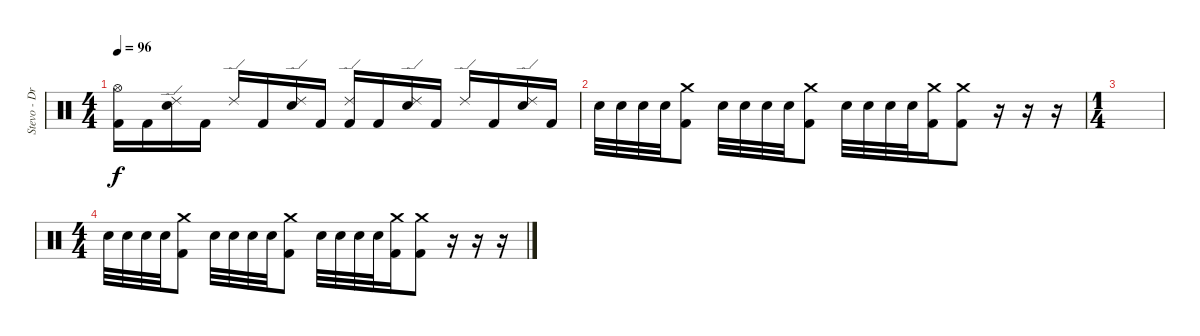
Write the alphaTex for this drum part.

\track ("Stevo - Drums" "Stevo - Dr") {instrument percussion}
\staff {score}
\articulation defaults
\ts (4 4)
\tempo 96
\clef neutral
\ks c
("Hi-Hat (open)" "Kick (hit) 2").16{dy f} "Kick (hit) 2".16 ("Ride (edge) 2" "Electric Snare (hit)").16 "Kick (hit) 2".16 "Ride (edge) 2".16 "Kick (hit) 2".16 ("Ride (edge) 2" "Electric Snare (hit)").16 "Kick (hit) 2".16 ("Ride (edge) 2" "Kick (hit) 2").16 "Kick (hit) 2".16 ("Ride (edge) 2" "Electric Snare (hit)").16 "Kick (hit) 2".16 "Ride (edge) 2".16 "Kick (hit) 2".16 ("Ride (edge) 2" "Electric Snare (hit)").16 "Kick (hit) 2".16 |
"Electric Snare (hit)".32 "Electric Snare (hit)".32 "Electric Snare (hit)".32 "Electric Snare (hit)".32 ("Crash medium (hit)" "Kick (hit) 2").8 "Electric Snare (hit)".32 "Electric Snare (hit)".32 "Electric Snare (hit)".32 "Electric Snare (hit)".32 ("Crash medium (hit)" "Kick (hit) 2").8 "Electric Snare (hit)".32 "Electric Snare (hit)".32 "Electric Snare (hit)".32 "Electric Snare (hit)".32 ("Crash medium (hit)" "Kick (hit) 2").16 ("Crash medium (hit)" "Kick (hit) 2").8 r.16 r.16 r.16 |
\ts (1 4)
|
\ts (4 4)
"Electric Snare (hit)".32 "Electric Snare (hit)".32 "Electric Snare (hit)".32 "Electric Snare (hit)".32 ("Crash medium (hit)" "Kick (hit) 2").8 "Electric Snare (hit)".32 "Electric Snare (hit)".32 "Electric Snare (hit)".32 "Electric Snare (hit)".32 ("Crash medium (hit)" "Kick (hit) 2").8 "Electric Snare (hit)".32 "Electric Snare (hit)".32 "Electric Snare (hit)".32 "Electric Snare (hit)".32 ("Crash medium (hit)" "Kick (hit) 2").16 ("Crash medium (hit)" "Kick (hit) 2").8 r.16 r.16 r.16
